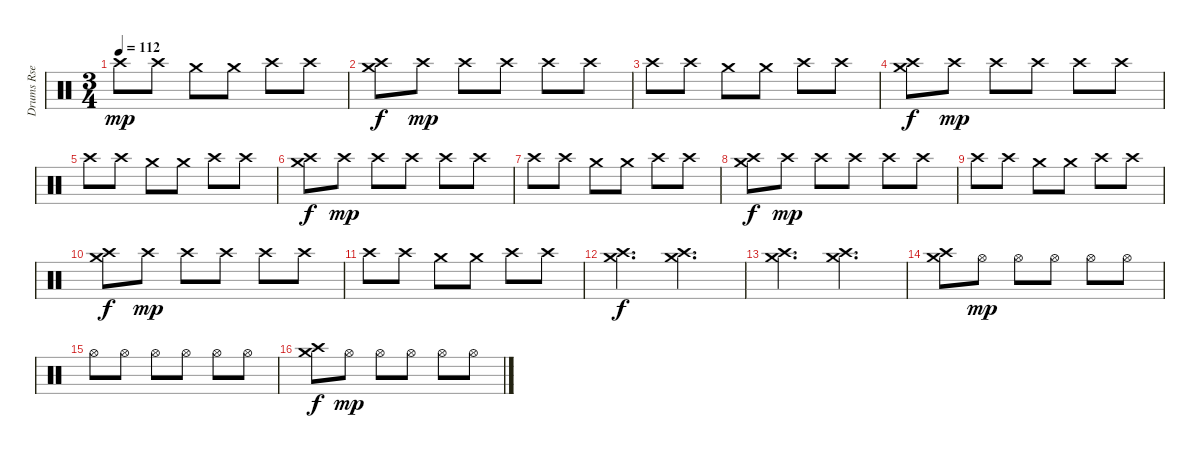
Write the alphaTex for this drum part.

\track ("Drums Rse" "Drums Rse") {instrument percussion}
\staff {score}
\articulation defaults
\ts (3 4)
\tempo 112
\clef neutral
\ks c "Crash high (hit)".8{dy mp} "Crash high (hit)".8 "Crash medium (hit)".8 "Crash medium (hit)".8 "Crash high (hit)".8 "Crash high (hit)".8
|
("Crash medium (hit)" "Crash high (hit)").8{dy f} "Crash high (hit)".8{dy mp} "Crash high (hit)".8 "Crash high (hit)".8 "Crash high (hit)".8 "Crash high (hit)".8 |
"Crash high (hit)".8 "Crash high (hit)".8 "Crash medium (hit)".8 "Crash medium (hit)".8 "Crash high (hit)".8 "Crash high (hit)".8 |
("Crash medium (hit)" "Crash high (hit)").8{dy f} "Crash high (hit)".8{dy mp} "Crash high (hit)".8 "Crash high (hit)".8 "Crash high (hit)".8 "Crash high (hit)".8 |
"Crash high (hit)".8 "Crash high (hit)".8 "Crash medium (hit)".8 "Crash medium (hit)".8 "Crash high (hit)".8 "Crash high (hit)".8 |
("Crash medium (hit)" "Crash high (hit)").8{dy f} "Crash high (hit)".8{dy mp} "Crash high (hit)".8 "Crash high (hit)".8 "Crash high (hit)".8 "Crash high (hit)".8 |
"Crash high (hit)".8 "Crash high (hit)".8 "Crash medium (hit)".8 "Crash medium (hit)".8 "Crash high (hit)".8 "Crash high (hit)".8 |
("Crash medium (hit)" "Crash high (hit)").8{dy f} "Crash high (hit)".8{dy mp} "Crash high (hit)".8 "Crash high (hit)".8 "Crash high (hit)".8 "Crash high (hit)".8 |
"Crash high (hit)".8 "Crash high (hit)".8 "Crash medium (hit)".8 "Crash medium (hit)".8 "Crash high (hit)".8 "Crash high (hit)".8 |
("Crash medium (hit)" "Crash high (hit)").8{dy f} "Crash high (hit)".8{dy mp} "Crash high (hit)".8 "Crash high (hit)".8 "Crash high (hit)".8 "Crash high (hit)".8 |
"Crash high (hit)".8 "Crash high (hit)".8 "Crash medium (hit)".8 "Crash medium (hit)".8 "Crash high (hit)".8 "Crash high (hit)".8 |
("Crash medium (hit)" "Crash high (hit)").4{d dy f} ("Crash medium (hit)" "Crash high (hit)").4{d} |
("Crash medium (hit)" "Crash high (hit)").4{d} ("Crash medium (hit)" "Crash high (hit)").4{d} |
("Crash medium (hit)" "Crash high (hit)").8 "Hi-Hat (open)".8{dy mp} "Hi-Hat (open)".8 "Hi-Hat (open)".8 "Hi-Hat (open)".8 "Hi-Hat (open)".8 |
"Hi-Hat (open)".8 "Hi-Hat (open)".8 "Hi-Hat (open)".8 "Hi-Hat (open)".8 "Hi-Hat (open)".8 "Hi-Hat (open)".8 |
("Crash medium (hit)" "Crash high (hit)").8{dy f} "Hi-Hat (open)".8{dy mp} "Hi-Hat (open)".8 "Hi-Hat (open)".8 "Hi-Hat (open)".8 "Hi-Hat (open)".8
